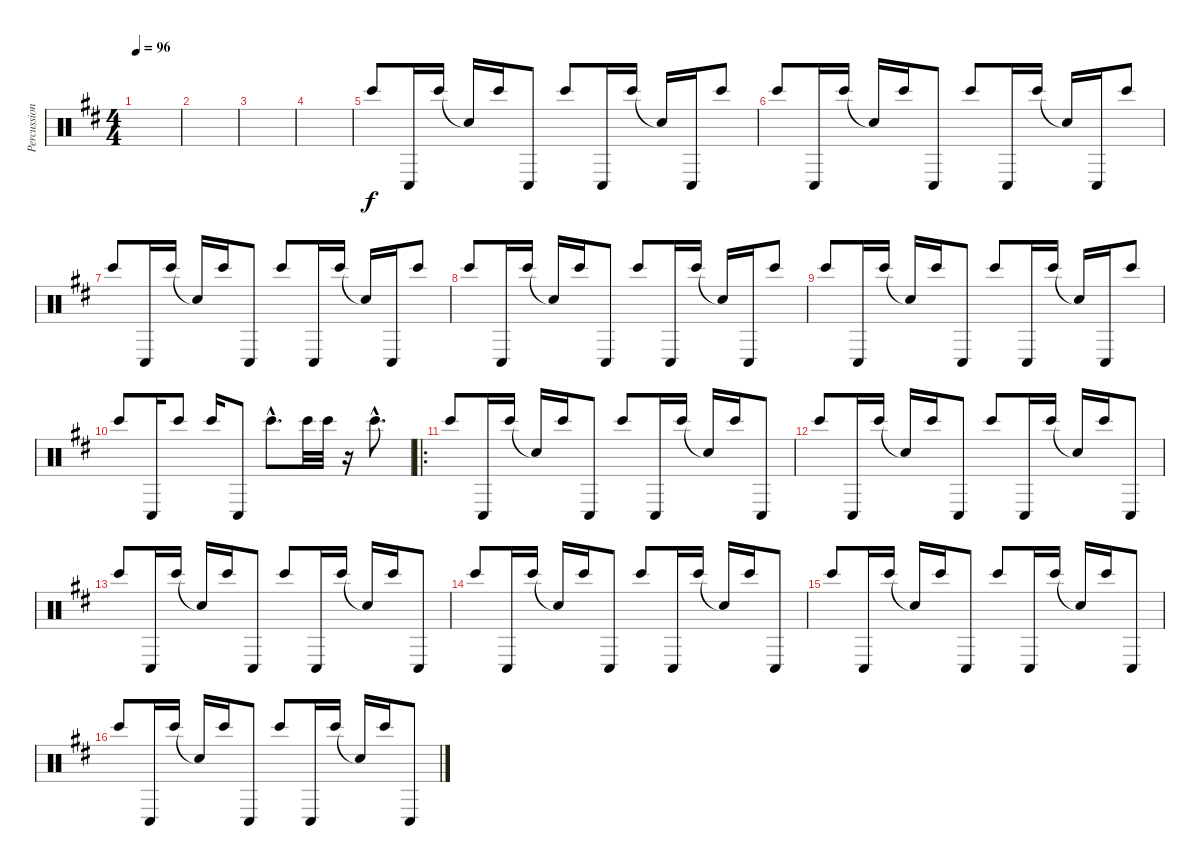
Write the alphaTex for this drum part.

\track ("Percussion" "Percussion") {instrument percussion}
\staff {score}
\articulation defaults
\ts (4 4)
\tempo 96
\clef neutral
\ks d
|
|
|
|
"Bongo High (hit)".8 "Conga low (hit)".16 "Bongo High (hit)".16 "Snare (hit)"{t}.16 "Bongo High (hit)".16 "Conga low (hit)".8 "Bongo High (hit)".8 "Conga low (hit)".16 "Bongo High (hit)".16 "Snare (hit)"{t}.16 "Conga low (hit)".16 "Bongo High (hit)".8 |
"Bongo High (hit)".8 "Conga low (hit)".16 "Bongo High (hit)".16 "Snare (hit)"{t}.16 "Bongo High (hit)".16 "Conga low (hit)".8 "Bongo High (hit)".8 "Conga low (hit)".16 "Bongo High (hit)".16 "Snare (hit)"{t}.16 "Conga low (hit)".16 "Bongo High (hit)".8 |
"Bongo High (hit)".8 "Conga low (hit)".16 "Bongo High (hit)".16 "Snare (hit)"{t}.16 "Bongo High (hit)".16 "Conga low (hit)".8 "Bongo High (hit)".8 "Conga low (hit)".16 "Bongo High (hit)".16 "Snare (hit)"{t}.16 "Conga low (hit)".16 "Bongo High (hit)".8 |
"Bongo High (hit)".8 "Conga low (hit)".16 "Bongo High (hit)".16 "Snare (hit)"{t}.16 "Bongo High (hit)".16 "Conga low (hit)".8 "Bongo High (hit)".8 "Conga low (hit)".16 "Bongo High (hit)".16 "Snare (hit)"{t}.16 "Conga low (hit)".16 "Bongo High (hit)".8 |
"Bongo High (hit)".8 "Conga low (hit)".16 "Bongo High (hit)".16 "Snare (hit)"{t}.16 "Bongo High (hit)".16 "Conga low (hit)".8 "Bongo High (hit)".8 "Conga low (hit)".16 "Bongo High (hit)".16 "Snare (hit)"{t}.16 "Conga low (hit)".16 "Bongo High (hit)".8 |
"Bongo High (hit)".8 "Conga low (hit)".16 "Bongo High (hit)".8 "Bongo High (hit)".16 "Conga low (hit)".8 "Bongo High (hit)"{hac}.8{d} "Bongo High (hit)".32 "Bongo High (hit)".32 r.16 "Bongo High (hit)"{hac}.8{d} |
\ro "Bongo High (hit)".8 "Conga low (hit)".16 "Bongo High (hit)".16 "Snare (hit)"{t}.16 "Bongo High (hit)".16 "Conga low (hit)".8 "Bongo High (hit)".8 "Conga low (hit)".16 "Bongo High (hit)".16 "Snare (hit)"{t}.16 "Bongo High (hit)".16 "Conga low (hit)".8
|
"Bongo High (hit)".8 "Conga low (hit)".16 "Bongo High (hit)".16 "Snare (hit)"{t}.16 "Bongo High (hit)".16 "Conga low (hit)".8 "Bongo High (hit)".8 "Conga low (hit)".16 "Bongo High (hit)".16 "Snare (hit)"{t}.16 "Bongo High (hit)".16 "Conga low (hit)".8 |
"Bongo High (hit)".8 "Conga low (hit)".16 "Bongo High (hit)".16 "Snare (hit)"{t}.16 "Bongo High (hit)".16 "Conga low (hit)".8 "Bongo High (hit)".8 "Conga low (hit)".16 "Bongo High (hit)".16 "Snare (hit)"{t}.16 "Bongo High (hit)".16 "Conga low (hit)".8 |
"Bongo High (hit)".8 "Conga low (hit)".16 "Bongo High (hit)".16 "Snare (hit)"{t}.16 "Bongo High (hit)".16 "Conga low (hit)".8 "Bongo High (hit)".8 "Conga low (hit)".16 "Bongo High (hit)".16 "Snare (hit)"{t}.16 "Bongo High (hit)".16 "Conga low (hit)".8 |
"Bongo High (hit)".8 "Conga low (hit)".16 "Bongo High (hit)".16 "Snare (hit)"{t}.16 "Bongo High (hit)".16 "Conga low (hit)".8 "Bongo High (hit)".8 "Conga low (hit)".16 "Bongo High (hit)".16 "Snare (hit)"{t}.16 "Bongo High (hit)".16 "Conga low (hit)".8 |
"Bongo High (hit)".8 "Conga low (hit)".16 "Bongo High (hit)".16 "Snare (hit)"{t}.16 "Bongo High (hit)".16 "Conga low (hit)".8 "Bongo High (hit)".8 "Conga low (hit)".16 "Bongo High (hit)".16 "Snare (hit)"{t}.16 "Bongo High (hit)".16 "Conga low (hit)".8
